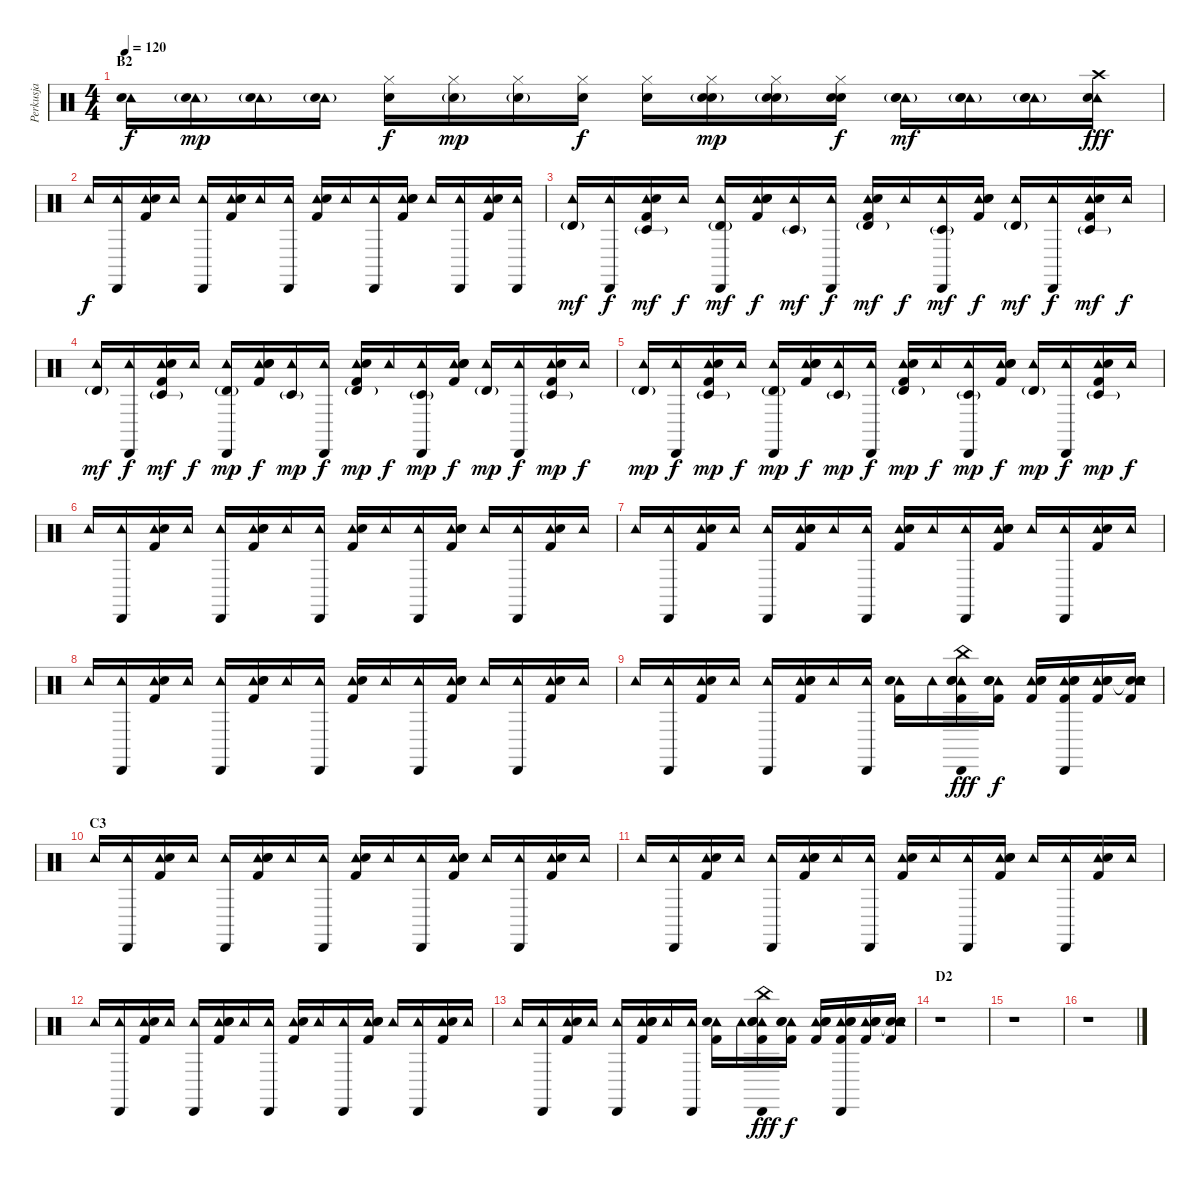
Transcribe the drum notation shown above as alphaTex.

\track ("Perkusja" "Perkusja") {instrument percussion}
\staff {score}
\articulation defaults
\ts (4 4)
\section ("" "B2")
\tempo 120
\clef neutral
\ks c
("Tambourine (hit)" "Electric Snare (hit)").16{dy f} ("Tambourine (hit)" "Electric Snare (hit)"{g}).16{dy mp} ("Tambourine (hit)" "Electric Snare (hit)"{g}).16 ("Tambourine (hit)" "Electric Snare (hit)"{g}).16 ("Hi-Hat (closed)" "Electric Snare (hit)").16{dy f} ("Hi-Hat (closed)" "Electric Snare (hit)"{g}).16{dy mp} ("Hi-Hat (closed)" "Electric Snare (hit)"{g}).16 ("Hi-Hat (closed)" "Snare (hit) 2").16{dy f} ("Hi-Hat (closed)" "Snare (hit) 2").16 ("Hi-Hat (closed)" "Snare (hit) 2"{g} "Snare (hit) 2").16{dy mp} ("Hi-Hat (closed)" "Snare (hit) 2"{g} "Electric Snare (hit)"{g}).16 ("Hi-Hat (closed)" "Electric Snare (hit)" "Snare (hit) 2").16{dy f} ("Tambourine (hit)" "Electric Snare (hit)"{g} "Snare (hit) 2"{g}).16{dy mf} ("Tambourine (hit)" "Electric Snare (hit)"{g} "Snare (hit) 2"{g}).16 ("Tambourine (hit)" "Electric Snare (hit)"{g} "Snare (hit) 2"{g}).16 ("Tambourine (hit)" "Electric Snare (hit)" "Crash high (hit)").16{dy fff} |
"Tambourine (hit)".16{dy f} ("Tambourine (hit)" "Cabasa (hit)").16 ("Tambourine (hit)" "Kick (hit) 2" "Snare (hit) 2").16 "Tambourine (hit)".16 ("Tambourine (hit)" "Cabasa (hit)").16 ("Tambourine (hit)" "Kick (hit) 2" "Electric Snare (hit)" "Snare (hit) 2").16 "Tambourine (hit)".16 ("Tambourine (hit)" "Cabasa (hit)").16 ("Tambourine (hit)" "Kick (hit) 2" "Snare (hit) 2").16 "Tambourine (hit)".16 ("Tambourine (hit)" "Cabasa (hit)").16 ("Tambourine (hit)" "Kick (hit) 2" "Electric Snare (hit)" "Snare (hit) 2").16 "Tambourine (hit)".16 ("Tambourine (hit)" "Cabasa (hit)").16 ("Tambourine (hit)" "Kick (hit) 2" "Snare (hit) 2").16 ("Tambourine (hit)" "Cabasa (hit)").16 |
("Tambourine (hit)" "Timbale high (hit)"{g}).16{dy mf} ("Tambourine (hit)" "Cabasa (hit)").16{dy f} ("Tambourine (hit)" "Kick (hit) 2" "Snare (hit) 2" "Timbale low (hit)"{g}).16{dy mf} "Tambourine (hit)".16{dy f} ("Tambourine (hit)" "Timbale high (hit)"{g} "Cabasa (hit)").16{dy mf} ("Tambourine (hit)" "Kick (hit) 2" "Electric Snare (hit)" "Snare (hit) 2").16{dy f} ("Tambourine (hit)" "Timbale low (hit)"{g}).16{dy mf} ("Tambourine (hit)" "Cabasa (hit)").16{dy f} ("Tambourine (hit)" "Kick (hit) 2" "Snare (hit) 2" "Timbale high (hit)"{g}).16{dy mf} "Tambourine (hit)".16{dy f} ("Tambourine (hit)" "Timbale low (hit)"{g} "Cabasa (hit)").16{dy mf} ("Tambourine (hit)" "Kick (hit) 2" "Electric Snare (hit)" "Snare (hit) 2").16{dy f} ("Tambourine (hit)" "Timbale high (hit)"{g}).16{dy mf} ("Tambourine (hit)" "Cabasa (hit)").16{dy f} ("Tambourine (hit)" "Kick (hit) 2" "Snare (hit) 2" "Timbale low (hit)"{g}).16{dy mf} "Tambourine (hit)".16{dy f} |
("Tambourine (hit)" "Timbale high (hit)"{g}).16{dy mf} ("Tambourine (hit)" "Cabasa (hit)").16{dy f} ("Tambourine (hit)" "Kick (hit) 2" "Snare (hit) 2" "Timbale low (hit)"{g}).16{dy mf} "Tambourine (hit)".16{dy f} ("Tambourine (hit)" "Timbale high (hit)"{g} "Cabasa (hit)").16{dy mp} ("Tambourine (hit)" "Kick (hit) 2" "Electric Snare (hit)" "Snare (hit) 2").16{dy f} ("Tambourine (hit)" "Timbale low (hit)"{g}).16{dy mp} ("Tambourine (hit)" "Cabasa (hit)").16{dy f} ("Tambourine (hit)" "Kick (hit) 2" "Snare (hit) 2" "Timbale high (hit)"{g}).16{dy mp} "Tambourine (hit)".16{dy f} ("Tambourine (hit)" "Timbale low (hit)"{g} "Cabasa (hit)").16{dy mp} ("Tambourine (hit)" "Kick (hit) 2" "Electric Snare (hit)" "Snare (hit) 2").16{dy f} ("Tambourine (hit)" "Timbale high (hit)"{g}).16{dy mp} ("Tambourine (hit)" "Cabasa (hit)").16{dy f} ("Tambourine (hit)" "Kick (hit) 2" "Snare (hit) 2" "Timbale low (hit)"{g}).16{dy mp} "Tambourine (hit)".16{dy f} |
("Tambourine (hit)" "Timbale high (hit)"{g}).16{dy mp} ("Tambourine (hit)" "Cabasa (hit)").16{dy f} ("Tambourine (hit)" "Kick (hit) 2" "Snare (hit) 2" "Timbale low (hit)"{g}).16{dy mp} "Tambourine (hit)".16{dy f} ("Tambourine (hit)" "Timbale high (hit)"{g} "Cabasa (hit)").16{dy mp} ("Tambourine (hit)" "Kick (hit) 2" "Electric Snare (hit)" "Snare (hit) 2").16{dy f} ("Tambourine (hit)" "Timbale low (hit)"{g}).16{dy mp} ("Tambourine (hit)" "Cabasa (hit)").16{dy f} ("Tambourine (hit)" "Kick (hit) 2" "Snare (hit) 2" "Timbale high (hit)"{g}).16{dy mp} "Tambourine (hit)".16{dy f} ("Tambourine (hit)" "Timbale low (hit)"{g} "Cabasa (hit)").16{dy mp} ("Tambourine (hit)" "Kick (hit) 2" "Electric Snare (hit)" "Snare (hit) 2").16{dy f} ("Tambourine (hit)" "Timbale high (hit)"{g}).16{dy mp} ("Tambourine (hit)" "Cabasa (hit)").16{dy f} ("Tambourine (hit)" "Kick (hit) 2" "Snare (hit) 2" "Timbale low (hit)"{g}).16{dy mp} "Tambourine (hit)".16{dy f} |
"Tambourine (hit)".16 ("Tambourine (hit)" "Cabasa (hit)").16 ("Tambourine (hit)" "Kick (hit) 2" "Snare (hit) 2").16 "Tambourine (hit)".16 ("Tambourine (hit)" "Cabasa (hit)").16 ("Tambourine (hit)" "Kick (hit) 2" "Electric Snare (hit)" "Snare (hit) 2").16 "Tambourine (hit)".16 ("Tambourine (hit)" "Cabasa (hit)").16 ("Tambourine (hit)" "Kick (hit) 2" "Snare (hit) 2").16 "Tambourine (hit)".16 ("Tambourine (hit)" "Cabasa (hit)").16 ("Tambourine (hit)" "Kick (hit) 2" "Electric Snare (hit)" "Snare (hit) 2").16 "Tambourine (hit)".16 ("Tambourine (hit)" "Cabasa (hit)").16 ("Tambourine (hit)" "Kick (hit) 2" "Snare (hit) 2").16 "Tambourine (hit)".16 |
"Tambourine (hit)".16 ("Tambourine (hit)" "Cabasa (hit)").16 ("Tambourine (hit)" "Kick (hit) 2" "Snare (hit) 2").16 "Tambourine (hit)".16 ("Tambourine (hit)" "Cabasa (hit)").16 ("Tambourine (hit)" "Kick (hit) 2" "Electric Snare (hit)" "Snare (hit) 2").16 "Tambourine (hit)".16 ("Tambourine (hit)" "Cabasa (hit)").16 ("Tambourine (hit)" "Kick (hit) 2" "Snare (hit) 2").16 "Tambourine (hit)".16 ("Tambourine (hit)" "Cabasa (hit)").16 ("Tambourine (hit)" "Kick (hit) 2" "Electric Snare (hit)" "Snare (hit) 2").16 "Tambourine (hit)".16 ("Tambourine (hit)" "Cabasa (hit)").16 ("Tambourine (hit)" "Kick (hit) 2" "Snare (hit) 2").16 "Tambourine (hit)".16 |
"Tambourine (hit)".16 ("Tambourine (hit)" "Cabasa (hit)").16 ("Tambourine (hit)" "Kick (hit) 2" "Snare (hit) 2").16 "Tambourine (hit)".16 ("Tambourine (hit)" "Cabasa (hit)").16 ("Tambourine (hit)" "Kick (hit) 2" "Electric Snare (hit)" "Snare (hit) 2").16 "Tambourine (hit)".16 ("Tambourine (hit)" "Cabasa (hit)").16 ("Tambourine (hit)" "Kick (hit) 2" "Snare (hit) 2").16 "Tambourine (hit)".16 ("Tambourine (hit)" "Cabasa (hit)").16 ("Tambourine (hit)" "Kick (hit) 2" "Electric Snare (hit)" "Snare (hit) 2").16 "Tambourine (hit)".16 ("Tambourine (hit)" "Cabasa (hit)").16 ("Tambourine (hit)" "Kick (hit) 2" "Snare (hit) 2").16 "Tambourine (hit)".16 |
"Tambourine (hit)".16 ("Tambourine (hit)" "Cabasa (hit)").16 ("Tambourine (hit)" "Kick (hit) 2" "Snare (hit) 2").16 "Tambourine (hit)".16 ("Tambourine (hit)" "Cabasa (hit)").16 ("Tambourine (hit)" "Kick (hit) 2" "Electric Snare (hit)" "Snare (hit) 2").16 "Tambourine (hit)".16 ("Tambourine (hit)" "Cabasa (hit)").16 ("Tambourine (hit)" "Kick (hit) 2" "Snare (hit) 2").16 "Tambourine (hit)".16 ("China (hit)" "Tambourine (hit)" "Kick (hit) 2" "Electric Snare (hit)" "Snare (hit) 2" "Cabasa (hit)").16{dy fff} ("Tambourine (hit)" "Kick (hit) 2" "Electric Snare (hit)" "Snare (hit) 2").16{dy f} ("Tambourine (hit)" "Kick (hit) 2" "Electric Snare (hit)" "Snare (hit) 2").16 ("Tambourine (hit)" "Kick (hit) 2" "Electric Snare (hit)" "Snare (hit) 2" "Cabasa (hit)").16 ("Tambourine (hit)" "Kick (hit) 2" "Electric Snare (hit)" "Snare (hit) 2").16 ("Snare (hit)"{t} "Tambourine (hit)" "Kick (hit) 2" "Electric Snare (hit)" "Snare (hit) 2").16 |
\section ("" "C3")
"Tambourine (hit)".16 ("Tambourine (hit)" "Cabasa (hit)").16 ("Tambourine (hit)" "Kick (hit) 2" "Snare (hit) 2").16 "Tambourine (hit)".16 ("Tambourine (hit)" "Cabasa (hit)").16 ("Tambourine (hit)" "Kick (hit) 2" "Electric Snare (hit)" "Snare (hit) 2").16 "Tambourine (hit)".16 ("Tambourine (hit)" "Cabasa (hit)").16 ("Tambourine (hit)" "Kick (hit) 2" "Snare (hit) 2").16 "Tambourine (hit)".16 ("Tambourine (hit)" "Cabasa (hit)").16 ("Tambourine (hit)" "Kick (hit) 2" "Electric Snare (hit)" "Snare (hit) 2").16 "Tambourine (hit)".16 ("Tambourine (hit)" "Cabasa (hit)").16 ("Tambourine (hit)" "Kick (hit) 2" "Snare (hit) 2").16 "Tambourine (hit)".16 |
"Tambourine (hit)".16 ("Tambourine (hit)" "Cabasa (hit)").16 ("Tambourine (hit)" "Kick (hit) 2" "Snare (hit) 2").16 "Tambourine (hit)".16 ("Tambourine (hit)" "Cabasa (hit)").16 ("Tambourine (hit)" "Kick (hit) 2" "Electric Snare (hit)" "Snare (hit) 2").16 "Tambourine (hit)".16 ("Tambourine (hit)" "Cabasa (hit)").16 ("Tambourine (hit)" "Kick (hit) 2" "Snare (hit) 2").16 "Tambourine (hit)".16 ("Tambourine (hit)" "Cabasa (hit)").16 ("Tambourine (hit)" "Kick (hit) 2" "Electric Snare (hit)" "Snare (hit) 2").16 "Tambourine (hit)".16 ("Tambourine (hit)" "Cabasa (hit)").16 ("Tambourine (hit)" "Kick (hit) 2" "Snare (hit) 2").16 "Tambourine (hit)".16 |
"Tambourine (hit)".16 ("Tambourine (hit)" "Cabasa (hit)").16 ("Tambourine (hit)" "Kick (hit) 2" "Snare (hit) 2").16 "Tambourine (hit)".16 ("Tambourine (hit)" "Cabasa (hit)").16 ("Tambourine (hit)" "Kick (hit) 2" "Electric Snare (hit)" "Snare (hit) 2").16 "Tambourine (hit)".16 ("Tambourine (hit)" "Cabasa (hit)").16 ("Tambourine (hit)" "Kick (hit) 2" "Snare (hit) 2").16 "Tambourine (hit)".16 ("Tambourine (hit)" "Cabasa (hit)").16 ("Tambourine (hit)" "Kick (hit) 2" "Electric Snare (hit)" "Snare (hit) 2").16 "Tambourine (hit)".16 ("Tambourine (hit)" "Cabasa (hit)").16 ("Tambourine (hit)" "Kick (hit) 2" "Snare (hit) 2").16 "Tambourine (hit)".16 |
"Tambourine (hit)".16 ("Tambourine (hit)" "Cabasa (hit)").16 ("Tambourine (hit)" "Kick (hit) 2" "Snare (hit) 2").16 "Tambourine (hit)".16 ("Tambourine (hit)" "Cabasa (hit)").16 ("Tambourine (hit)" "Kick (hit) 2" "Electric Snare (hit)" "Snare (hit) 2").16 "Tambourine (hit)".16 ("Tambourine (hit)" "Cabasa (hit)").16 ("Tambourine (hit)" "Kick (hit) 2" "Snare (hit) 2").16 "Tambourine (hit)".16 ("China (hit)" "Tambourine (hit)" "Kick (hit) 2" "Electric Snare (hit)" "Snare (hit) 2" "Cabasa (hit)").16{dy fff} ("Tambourine (hit)" "Kick (hit) 2" "Electric Snare (hit)" "Snare (hit) 2").16{dy f} ("Tambourine (hit)" "Kick (hit) 2" "Electric Snare (hit)" "Snare (hit) 2").16 ("Tambourine (hit)" "Kick (hit) 2" "Electric Snare (hit)" "Snare (hit) 2" "Cabasa (hit)").16 ("Tambourine (hit)" "Kick (hit) 2" "Electric Snare (hit)" "Snare (hit) 2").16 ("Snare (hit)"{t} "Tambourine (hit)" "Kick (hit) 2" "Electric Snare (hit)" "Snare (hit) 2").16 |
\section ("" "D2")
r.1 |
r.1 |
r.1
